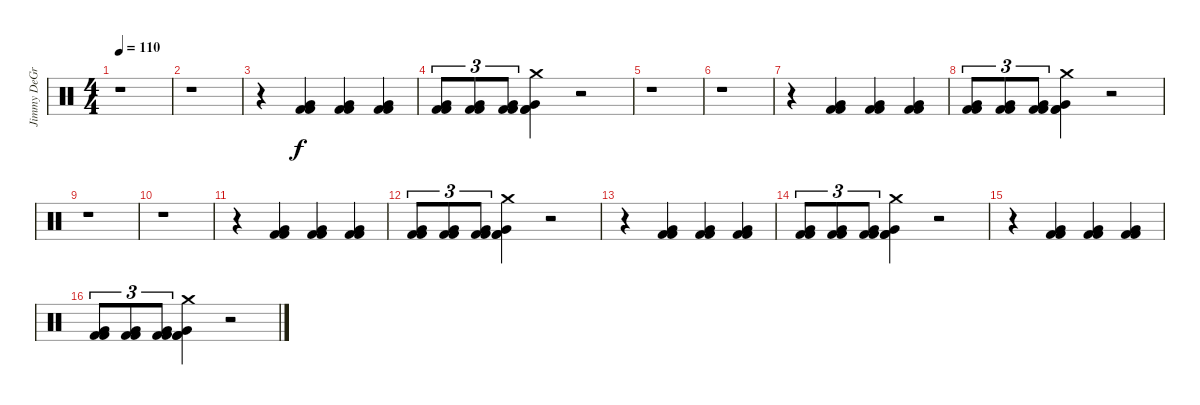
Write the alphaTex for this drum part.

\track ("Jimmy DeGrasso" "Jimmy DeGr") {instrument percussion}
\staff {score}
\articulation defaults
\ts (4 4)
\tempo 110
\clef neutral
\ks c
r.1{dy f} |
r.1 |
r.4 ("Very Low Tom (hit)" "Kick (hit) 2" "Kick (hit) 2").4 ("Very Low Tom (hit)" "Kick (hit) 2" "Kick (hit) 2").4 ("Very Low Tom (hit)" "Kick (hit) 2" "Kick (hit) 2").4 |
("Very Low Tom (hit)" "Kick (hit) 2" "Kick (hit) 2").8{tu (3 2)} ("Very Low Tom (hit)" "Kick (hit) 2" "Kick (hit) 2").8{tu (3 2)} ("Very Low Tom (hit)" "Kick (hit) 2" "Kick (hit) 2").8{tu (3 2)} ("Crash medium (hit)" "Very Low Tom (hit)" "Kick (hit) 2" "Kick (hit) 2").4 r.2 |
r.1 |
r.1 |
r.4 ("Very Low Tom (hit)" "Kick (hit) 2" "Kick (hit) 2").4 ("Very Low Tom (hit)" "Kick (hit) 2" "Kick (hit) 2").4 ("Very Low Tom (hit)" "Kick (hit) 2" "Kick (hit) 2").4 |
("Very Low Tom (hit)" "Kick (hit) 2" "Kick (hit) 2").8{tu (3 2)} ("Very Low Tom (hit)" "Kick (hit) 2" "Kick (hit) 2").8{tu (3 2)} ("Very Low Tom (hit)" "Kick (hit) 2" "Kick (hit) 2").8{tu (3 2)} ("Crash medium (hit)" "Very Low Tom (hit)" "Kick (hit) 2" "Kick (hit) 2").4 r.2 |
r.1 |
r.1 |
r.4 ("Very Low Tom (hit)" "Kick (hit) 2" "Kick (hit) 2").4 ("Very Low Tom (hit)" "Kick (hit) 2" "Kick (hit) 2").4 ("Very Low Tom (hit)" "Kick (hit) 2" "Kick (hit) 2").4 |
("Very Low Tom (hit)" "Kick (hit) 2" "Kick (hit) 2").8{tu (3 2)} ("Very Low Tom (hit)" "Kick (hit) 2" "Kick (hit) 2").8{tu (3 2)} ("Very Low Tom (hit)" "Kick (hit) 2" "Kick (hit) 2").8{tu (3 2)} ("Crash medium (hit)" "Very Low Tom (hit)" "Kick (hit) 2" "Kick (hit) 2").4 r.2 |
r.4 ("Very Low Tom (hit)" "Kick (hit) 2" "Kick (hit) 2").4 ("Very Low Tom (hit)" "Kick (hit) 2" "Kick (hit) 2").4 ("Very Low Tom (hit)" "Kick (hit) 2" "Kick (hit) 2").4 |
("Very Low Tom (hit)" "Kick (hit) 2" "Kick (hit) 2").8{tu (3 2)} ("Very Low Tom (hit)" "Kick (hit) 2" "Kick (hit) 2").8{tu (3 2)} ("Very Low Tom (hit)" "Kick (hit) 2" "Kick (hit) 2").8{tu (3 2)} ("Crash medium (hit)" "Very Low Tom (hit)" "Kick (hit) 2" "Kick (hit) 2").4 r.2 |
r.4 ("Very Low Tom (hit)" "Kick (hit) 2" "Kick (hit) 2").4 ("Very Low Tom (hit)" "Kick (hit) 2" "Kick (hit) 2").4 ("Very Low Tom (hit)" "Kick (hit) 2" "Kick (hit) 2").4 |
("Very Low Tom (hit)" "Kick (hit) 2" "Kick (hit) 2").8{tu (3 2)} ("Very Low Tom (hit)" "Kick (hit) 2" "Kick (hit) 2").8{tu (3 2)} ("Very Low Tom (hit)" "Kick (hit) 2" "Kick (hit) 2").8{tu (3 2)} ("Crash medium (hit)" "Very Low Tom (hit)" "Kick (hit) 2" "Kick (hit) 2").4 r.2
